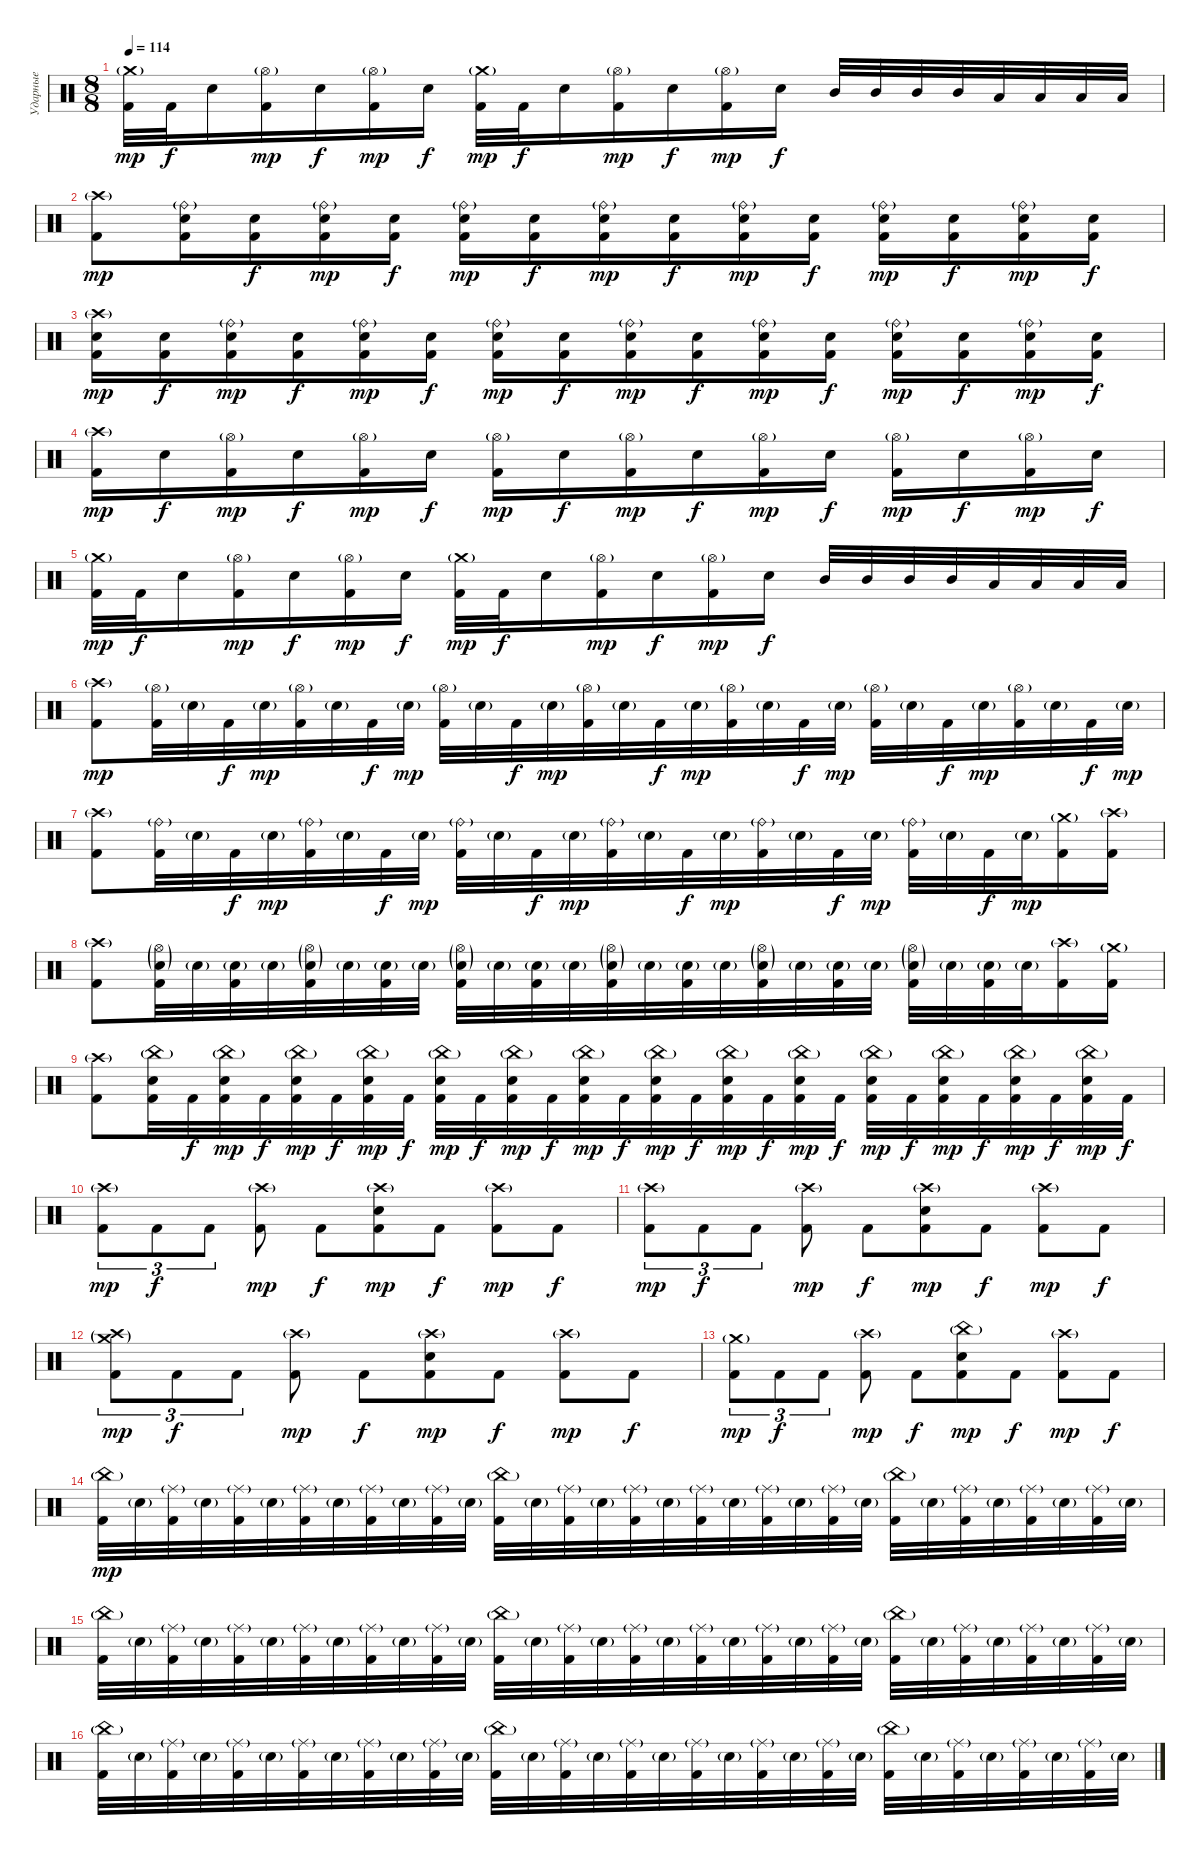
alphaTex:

\track ("Ударные" "Ударные") {instrument percussion}
\staff {score}
\articulation defaults
\ts (8 8)
\tempo 114
\clef neutral
\ks c
("Crash medium (hit)"{g} "Kick (hit) 2").32{dy mp} "Kick (hit) 2".32{dy f} "Electric Snare (hit)".16 ("Hi-Hat (open)"{g} "Kick (hit) 2").16{dy mp} "Electric Snare (hit)".16{dy f} ("Hi-Hat (open)"{g} "Kick (hit) 2").16{dy mp} "Electric Snare (hit)".16{dy f} ("Crash medium (hit)"{g} "Kick (hit) 2").32{dy mp} "Kick (hit) 2".32{dy f} "Electric Snare (hit)".16 ("Hi-Hat (open)"{g} "Kick (hit) 2").16{dy mp} "Electric Snare (hit)".16{dy f} ("Hi-Hat (open)"{g} "Kick (hit) 2").16{dy mp} "Electric Snare (hit)".16{dy f} "Mid Tom (hit)".32 "Mid Tom (hit)".32 "Mid Tom (hit)".32 "Mid Tom (hit)".32 "Low Tom (hit)".32 "Low Tom (hit)".32 "Low Tom (hit)".32 "Low Tom (hit)".32 |
("Crash high (hit)"{g} "Kick (hit) 2").8{dy mp} ("Ride (bell)"{g} "Electric Snare (hit)" "Kick (hit) 2").16 ("Electric Snare (hit)" "Kick (hit) 2").16{dy f} ("Ride (bell)"{g} "Electric Snare (hit)" "Kick (hit) 2").16{dy mp} ("Electric Snare (hit)" "Kick (hit) 2").16{dy f} ("Ride (bell)"{g} "Electric Snare (hit)" "Kick (hit) 2").16{dy mp} ("Electric Snare (hit)" "Kick (hit) 2").16{dy f} ("Ride (bell)"{g} "Electric Snare (hit)" "Kick (hit) 2").16{dy mp} ("Electric Snare (hit)" "Kick (hit) 2").16{dy f} ("Ride (bell)"{g} "Electric Snare (hit)" "Kick (hit) 2").16{dy mp} ("Electric Snare (hit)" "Kick (hit) 2").16{dy f} ("Ride (bell)"{g} "Electric Snare (hit)" "Kick (hit) 2").16{dy mp} ("Electric Snare (hit)" "Kick (hit) 2").16{dy f} ("Ride (bell)"{g} "Electric Snare (hit)" "Kick (hit) 2").16{dy mp} ("Electric Snare (hit)" "Kick (hit) 2").16{dy f} |
("Crash high (hit)"{g} "Electric Snare (hit)" "Kick (hit) 2").16{dy mp} ("Electric Snare (hit)" "Kick (hit) 2").16{dy f} ("Ride (bell)"{g} "Electric Snare (hit)" "Kick (hit) 2").16{dy mp} ("Electric Snare (hit)" "Kick (hit) 2").16{dy f} ("Ride (bell)"{g} "Electric Snare (hit)" "Kick (hit) 2").16{dy mp} ("Electric Snare (hit)" "Kick (hit) 2").16{dy f} ("Ride (bell)"{g} "Electric Snare (hit)" "Kick (hit) 2").16{dy mp} ("Electric Snare (hit)" "Kick (hit) 2").16{dy f} ("Ride (bell)"{g} "Electric Snare (hit)" "Kick (hit) 2").16{dy mp} ("Electric Snare (hit)" "Kick (hit) 2").16{dy f} ("Ride (bell)"{g} "Electric Snare (hit)" "Kick (hit) 2").16{dy mp} ("Electric Snare (hit)" "Kick (hit) 2").16{dy f} ("Ride (bell)"{g} "Electric Snare (hit)" "Kick (hit) 2").16{dy mp} ("Electric Snare (hit)" "Kick (hit) 2").16{dy f} ("Ride (bell)"{g} "Electric Snare (hit)" "Kick (hit) 2").16{dy mp} ("Electric Snare (hit)" "Kick (hit) 2").16{dy f} |
("Crash high (hit)"{g} "Kick (hit) 2").16{dy mp} "Electric Snare (hit)".16{dy f} ("Hi-Hat (open)"{g} "Kick (hit) 2").16{dy mp} "Electric Snare (hit)".16{dy f} ("Hi-Hat (open)"{g} "Kick (hit) 2").16{dy mp} "Electric Snare (hit)".16{dy f} ("Hi-Hat (open)"{g} "Kick (hit) 2").16{dy mp} "Electric Snare (hit)".16{dy f} ("Hi-Hat (open)"{g} "Kick (hit) 2").16{dy mp} "Electric Snare (hit)".16{dy f} ("Hi-Hat (open)"{g} "Kick (hit) 2").16{dy mp} "Electric Snare (hit)".16{dy f} ("Hi-Hat (open)"{g} "Kick (hit) 2").16{dy mp} "Electric Snare (hit)".16{dy f} ("Hi-Hat (open)"{g} "Kick (hit) 2").16{dy mp} "Electric Snare (hit)".16{dy f} |
("Crash medium (hit)"{g} "Kick (hit) 2").32{dy mp} "Kick (hit) 2".32{dy f} "Electric Snare (hit)".16 ("Hi-Hat (open)"{g} "Kick (hit) 2").16{dy mp} "Electric Snare (hit)".16{dy f} ("Hi-Hat (open)"{g} "Kick (hit) 2").16{dy mp} "Electric Snare (hit)".16{dy f} ("Crash medium (hit)"{g} "Kick (hit) 2").32{dy mp} "Kick (hit) 2".32{dy f} "Electric Snare (hit)".16 ("Hi-Hat (open)"{g} "Kick (hit) 2").16{dy mp} "Electric Snare (hit)".16{dy f} ("Hi-Hat (open)"{g} "Kick (hit) 2").16{dy mp} "Electric Snare (hit)".16{dy f} "Mid Tom (hit)".32 "Mid Tom (hit)".32 "Mid Tom (hit)".32 "Mid Tom (hit)".32 "Low Tom (hit)".32 "Low Tom (hit)".32 "Low Tom (hit)".32 "Low Tom (hit)".32 |
("Crash high (hit)"{g} "Kick (hit) 2").8{dy mp} ("Hi-Hat (open)"{g} "Kick (hit) 2").32 "Electric Snare (hit)"{g}.32 "Kick (hit) 2".32{dy f} "Electric Snare (hit)"{g}.32{dy mp} ("Hi-Hat (open)"{g} "Kick (hit) 2").32 "Electric Snare (hit)"{g}.32 "Kick (hit) 2".32{dy f} "Electric Snare (hit)"{g}.32{dy mp} ("Hi-Hat (open)"{g} "Kick (hit) 2").32 "Electric Snare (hit)"{g}.32 "Kick (hit) 2".32{dy f} "Electric Snare (hit)"{g}.32{dy mp} ("Hi-Hat (open)"{g} "Kick (hit) 2").32 "Electric Snare (hit)"{g}.32 "Kick (hit) 2".32{dy f} "Electric Snare (hit)"{g}.32{dy mp} ("Hi-Hat (open)"{g} "Kick (hit) 2").32 "Electric Snare (hit)"{g}.32 "Kick (hit) 2".32{dy f} "Electric Snare (hit)"{g}.32{dy mp} ("Hi-Hat (open)"{g} "Kick (hit) 2").32 "Electric Snare (hit)"{g}.32 "Kick (hit) 2".32{dy f} "Electric Snare (hit)"{g}.32{dy mp} ("Hi-Hat (open)"{g} "Kick (hit) 2").32 "Electric Snare (hit)"{g}.32 "Kick (hit) 2".32{dy f} "Electric Snare (hit)"{g}.32{dy mp} |
("Crash high (hit)"{g} "Kick (hit) 2").8 ("Ride (bell)"{g} "Kick (hit) 2").32 "Electric Snare (hit)"{g}.32 "Kick (hit) 2".32{dy f} "Electric Snare (hit)"{g}.32{dy mp} ("Ride (bell)"{g} "Kick (hit) 2").32 "Electric Snare (hit)"{g}.32 "Kick (hit) 2".32{dy f} "Electric Snare (hit)"{g}.32{dy mp} ("Ride (bell)"{g} "Kick (hit) 2").32 "Electric Snare (hit)"{g}.32 "Kick (hit) 2".32{dy f} "Electric Snare (hit)"{g}.32{dy mp} ("Ride (bell)"{g} "Kick (hit) 2").32 "Electric Snare (hit)"{g}.32 "Kick (hit) 2".32{dy f} "Electric Snare (hit)"{g}.32{dy mp} ("Ride (bell)"{g} "Kick (hit) 2").32 "Electric Snare (hit)"{g}.32 "Kick (hit) 2".32{dy f} "Electric Snare (hit)"{g}.32{dy mp} ("Ride (bell)"{g} "Kick (hit) 2").32 "Electric Snare (hit)"{g}.32 "Kick (hit) 2".32{dy f} "Electric Snare (hit)"{g}.32{dy mp} ("Crash medium (hit)"{g} "Kick (hit) 2").16 ("Crash high (hit)"{g} "Kick (hit) 2").16 |
("Crash high (hit)"{g} "Kick (hit) 2").8 ("Hi-Hat (open)"{g} "Electric Snare (hit)"{g} "Kick (hit) 2").32 "Electric Snare (hit)"{g}.32 ("Electric Snare (hit)"{g} "Kick (hit) 2").32 "Electric Snare (hit)"{g}.32 ("Hi-Hat (open)"{g} "Electric Snare (hit)"{g} "Kick (hit) 2").32 "Electric Snare (hit)"{g}.32 ("Electric Snare (hit)"{g} "Kick (hit) 2").32 "Electric Snare (hit)"{g}.32 ("Hi-Hat (open)"{g} "Electric Snare (hit)"{g} "Kick (hit) 2").32 "Electric Snare (hit)"{g}.32 ("Electric Snare (hit)"{g} "Kick (hit) 2").32 "Electric Snare (hit)"{g}.32 ("Hi-Hat (open)"{g} "Electric Snare (hit)"{g} "Kick (hit) 2").32 "Electric Snare (hit)"{g}.32 ("Electric Snare (hit)"{g} "Kick (hit) 2").32 "Electric Snare (hit)"{g}.32 ("Hi-Hat (open)"{g} "Electric Snare (hit)"{g} "Kick (hit) 2").32 "Electric Snare (hit)"{g}.32 ("Electric Snare (hit)"{g} "Kick (hit) 2").32 "Electric Snare (hit)"{g}.32 ("Hi-Hat (open)"{g} "Electric Snare (hit)"{g} "Kick (hit) 2").32 "Electric Snare (hit)"{g}.32 ("Electric Snare (hit)"{g} "Kick (hit) 2").32 "Electric Snare (hit)"{g}.32 ("Crash high (hit)"{g} "Kick (hit) 2").16 ("Crash medium (hit)"{g} "Kick (hit) 2").16 |
("Crash high (hit)"{g} "Kick (hit) 2").8 ("China (hit)"{g} "Electric Snare (hit)" "Kick (hit) 2").32 "Kick (hit) 2".32{dy f} ("China (hit)"{g} "Electric Snare (hit)" "Kick (hit) 2").32{dy mp} "Kick (hit) 2".32{dy f} ("China (hit)"{g} "Electric Snare (hit)" "Kick (hit) 2").32{dy mp} "Kick (hit) 2".32{dy f} ("China (hit)"{g} "Electric Snare (hit)" "Kick (hit) 2").32{dy mp} "Kick (hit) 2".32{dy f} ("China (hit)"{g} "Electric Snare (hit)" "Kick (hit) 2").32{dy mp} "Kick (hit) 2".32{dy f} ("China (hit)"{g} "Electric Snare (hit)" "Kick (hit) 2").32{dy mp} "Kick (hit) 2".32{dy f} ("China (hit)"{g} "Electric Snare (hit)" "Kick (hit) 2").32{dy mp} "Kick (hit) 2".32{dy f} ("China (hit)"{g} "Electric Snare (hit)" "Kick (hit) 2").32{dy mp} "Kick (hit) 2".32{dy f} ("China (hit)"{g} "Electric Snare (hit)" "Kick (hit) 2").32{dy mp} "Kick (hit) 2".32{dy f} ("China (hit)"{g} "Electric Snare (hit)" "Kick (hit) 2").32{dy mp} "Kick (hit) 2".32{dy f} ("China (hit)"{g} "Electric Snare (hit)" "Kick (hit) 2").32{dy mp} "Kick (hit) 2".32{dy f} ("China (hit)"{g} "Electric Snare (hit)" "Kick (hit) 2").32{dy mp} "Kick (hit) 2".32{dy f} ("China (hit)"{g} "Electric Snare (hit)" "Kick (hit) 2").32{dy mp} "Kick (hit) 2".32{dy f} ("China (hit)"{g} "Electric Snare (hit)" "Kick (hit) 2").32{dy mp} "Kick (hit) 2".32{dy f} |
("Crash high (hit)"{g} "Kick (hit) 2").8{tu (3 2) dy mp} "Kick (hit) 2".8{tu (3 2) dy f} "Kick (hit) 2".8{tu (3 2)} ("Crash high (hit)"{g} "Kick (hit) 2").8{dy mp} "Kick (hit) 2".8{dy f} ("Crash high (hit)"{g} "Electric Snare (hit)" "Kick (hit) 2").8{dy mp} "Kick (hit) 2".8{dy f} ("Crash high (hit)"{g} "Kick (hit) 2").8{dy mp} "Kick (hit) 2".8{dy f} |
("Crash high (hit)"{g} "Kick (hit) 2").8{tu (3 2) dy mp} "Kick (hit) 2".8{tu (3 2) dy f} "Kick (hit) 2".8{tu (3 2)} ("Crash high (hit)"{g} "Kick (hit) 2").8{dy mp} "Kick (hit) 2".8{dy f} ("Crash high (hit)"{g} "Electric Snare (hit)" "Kick (hit) 2").8{dy mp} "Kick (hit) 2".8{dy f} ("Crash high (hit)"{g} "Kick (hit) 2").8{dy mp} "Kick (hit) 2".8{dy f} |
("Crash high (hit)"{g} "Crash medium (hit)"{g} "Kick (hit) 2").8{tu (3 2) dy mp} "Kick (hit) 2".8{tu (3 2) dy f} "Kick (hit) 2".8{tu (3 2)} ("Crash high (hit)"{g} "Kick (hit) 2").8{dy mp} "Kick (hit) 2".8{dy f} ("Crash high (hit)"{g} "Electric Snare (hit)" "Kick (hit) 2").8{dy mp} "Kick (hit) 2".8{dy f} ("Crash high (hit)"{g} "Kick (hit) 2").8{dy mp} "Kick (hit) 2".8{dy f} |
("Crash medium (hit)"{g} "Kick (hit) 2").8{tu (3 2) dy mp} "Kick (hit) 2".8{tu (3 2) dy f} "Kick (hit) 2".8{tu (3 2)} ("Crash high (hit)"{g} "Kick (hit) 2").8{dy mp} "Kick (hit) 2".8{dy f} ("China (hit)"{g} "Electric Snare (hit)" "Kick (hit) 2").8{dy mp} "Kick (hit) 2".8{dy f} ("Crash high (hit)"{g} "Kick (hit) 2").8{dy mp} "Kick (hit) 2".8{dy f} |
("China (hit)"{g} "Kick (hit) 2").32{dy mp} "Electric Snare (hit)"{g}.32 ("Ride (middle)"{g} "Kick (hit) 2").32 "Electric Snare (hit)"{g}.32 ("Ride (middle)"{g} "Kick (hit) 2").32 "Electric Snare (hit)"{g}.32 ("Ride (middle)"{g} "Kick (hit) 2").32 "Electric Snare (hit)"{g}.32 ("Ride (middle)"{g} "Kick (hit) 2").32 "Electric Snare (hit)"{g}.32 ("Ride (middle)"{g} "Kick (hit) 2").32 "Electric Snare (hit)"{g}.32 ("China (hit)"{g} "Kick (hit) 2").32 "Electric Snare (hit)"{g}.32 ("Ride (middle)"{g} "Kick (hit) 2").32 "Electric Snare (hit)"{g}.32 ("Ride (middle)"{g} "Kick (hit) 2").32 "Electric Snare (hit)"{g}.32 ("Ride (middle)"{g} "Kick (hit) 2").32 "Electric Snare (hit)"{g}.32 ("Ride (middle)"{g} "Kick (hit) 2").32 "Electric Snare (hit)"{g}.32 ("Ride (middle)"{g} "Kick (hit) 2").32 "Electric Snare (hit)"{g}.32 ("China (hit)"{g} "Kick (hit) 2").32 "Electric Snare (hit)"{g}.32 ("Ride (middle)"{g} "Kick (hit) 2").32 "Electric Snare (hit)"{g}.32 ("Ride (middle)"{g} "Kick (hit) 2").32 "Electric Snare (hit)"{g}.32 ("Ride (middle)"{g} "Kick (hit) 2").32 "Electric Snare (hit)"{g}.32 |
("China (hit)"{g} "Kick (hit) 2").32 "Electric Snare (hit)"{g}.32 ("Ride (middle)"{g} "Kick (hit) 2").32 "Electric Snare (hit)"{g}.32 ("Ride (middle)"{g} "Kick (hit) 2").32 "Electric Snare (hit)"{g}.32 ("Ride (middle)"{g} "Kick (hit) 2").32 "Electric Snare (hit)"{g}.32 ("Ride (middle)"{g} "Kick (hit) 2").32 "Electric Snare (hit)"{g}.32 ("Ride (middle)"{g} "Kick (hit) 2").32 "Electric Snare (hit)"{g}.32 ("China (hit)"{g} "Kick (hit) 2").32 "Electric Snare (hit)"{g}.32 ("Ride (middle)"{g} "Kick (hit) 2").32 "Electric Snare (hit)"{g}.32 ("Ride (middle)"{g} "Kick (hit) 2").32 "Electric Snare (hit)"{g}.32 ("Ride (middle)"{g} "Kick (hit) 2").32 "Electric Snare (hit)"{g}.32 ("Ride (middle)"{g} "Kick (hit) 2").32 "Electric Snare (hit)"{g}.32 ("Ride (middle)"{g} "Kick (hit) 2").32 "Electric Snare (hit)"{g}.32 ("China (hit)"{g} "Kick (hit) 2").32 "Electric Snare (hit)"{g}.32 ("Ride (middle)"{g} "Kick (hit) 2").32 "Electric Snare (hit)"{g}.32 ("Ride (middle)"{g} "Kick (hit) 2").32 "Electric Snare (hit)"{g}.32 ("Ride (middle)"{g} "Kick (hit) 2").32 "Electric Snare (hit)"{g}.32 |
("China (hit)"{g} "Kick (hit) 2").32 "Electric Snare (hit)"{g}.32 ("Ride (middle)"{g} "Kick (hit) 2").32 "Electric Snare (hit)"{g}.32 ("Ride (middle)"{g} "Kick (hit) 2").32 "Electric Snare (hit)"{g}.32 ("Ride (middle)"{g} "Kick (hit) 2").32 "Electric Snare (hit)"{g}.32 ("Ride (middle)"{g} "Kick (hit) 2").32 "Electric Snare (hit)"{g}.32 ("Ride (middle)"{g} "Kick (hit) 2").32 "Electric Snare (hit)"{g}.32 ("China (hit)"{g} "Kick (hit) 2").32 "Electric Snare (hit)"{g}.32 ("Ride (middle)"{g} "Kick (hit) 2").32 "Electric Snare (hit)"{g}.32 ("Ride (middle)"{g} "Kick (hit) 2").32 "Electric Snare (hit)"{g}.32 ("Ride (middle)"{g} "Kick (hit) 2").32 "Electric Snare (hit)"{g}.32 ("Ride (middle)"{g} "Kick (hit) 2").32 "Electric Snare (hit)"{g}.32 ("Ride (middle)"{g} "Kick (hit) 2").32 "Electric Snare (hit)"{g}.32 ("China (hit)"{g} "Kick (hit) 2").32 "Electric Snare (hit)"{g}.32 ("Ride (middle)"{g} "Kick (hit) 2").32 "Electric Snare (hit)"{g}.32 ("Ride (middle)"{g} "Kick (hit) 2").32 "Electric Snare (hit)"{g}.32 ("Ride (middle)"{g} "Kick (hit) 2").32 "Electric Snare (hit)"{g}.32
